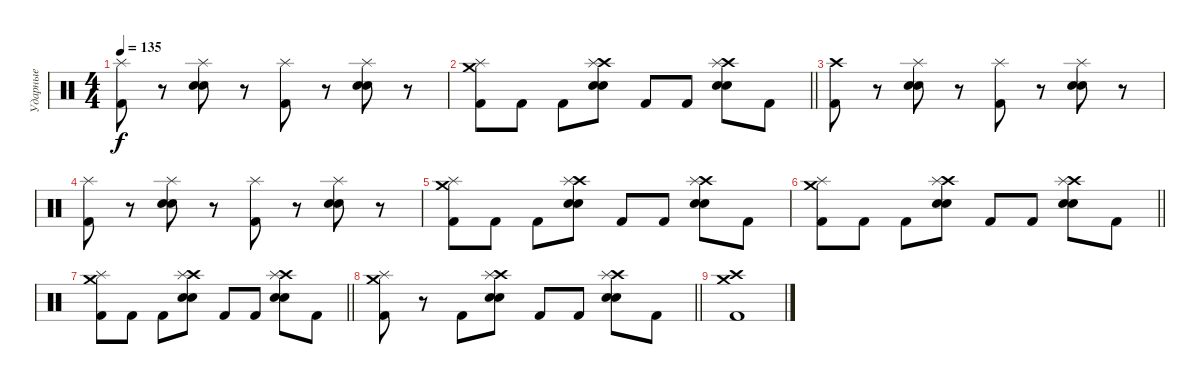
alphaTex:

\track ("Ударные" "Ударные") {instrument percussion}
\staff {score}
\articulation defaults
\ts (4 4)
\tempo 135
\clef neutral
\ks c
("Splash (hit)" "Kick (hit) 2").8{dy f} r.8 ("Splash (hit)" "Electric Snare (hit)" "Snare (hit) 2").8 r.8 ("Splash (hit)" "Kick (hit) 2").8 r.8 ("Splash (hit)" "Electric Snare (hit)" "Snare (hit) 2").8 r.8 |
\barLineRight lightlight
("Crash medium (hit)" "Splash (hit)" "Kick (hit) 2").8 "Kick (hit) 2".8 "Kick (hit) 2".8 ("Crash high (hit)" "Splash (hit)" "Electric Snare (hit)" "Snare (hit) 2").8 "Kick (hit) 2".8 "Kick (hit) 2".8 ("Crash high (hit)" "Splash (hit)" "Electric Snare (hit)" "Snare (hit) 2").8 "Kick (hit) 2".8 |
("Crash high (hit)" "Kick (hit) 2").8 r.8 ("Splash (hit)" "Electric Snare (hit)" "Snare (hit) 2").8 r.8 ("Splash (hit)" "Kick (hit) 2").8 r.8 ("Splash (hit)" "Electric Snare (hit)" "Snare (hit) 2").8 r.8 |
("Splash (hit)" "Kick (hit) 2").8 r.8 ("Splash (hit)" "Electric Snare (hit)" "Snare (hit) 2").8 r.8 ("Splash (hit)" "Kick (hit) 2").8 r.8 ("Splash (hit)" "Electric Snare (hit)" "Snare (hit) 2").8 r.8 |
("Crash medium (hit)" "Splash (hit)" "Kick (hit) 2").8 "Kick (hit) 2".8 "Kick (hit) 2".8 ("Crash high (hit)" "Splash (hit)" "Electric Snare (hit)" "Snare (hit) 2").8 "Kick (hit) 2".8 "Kick (hit) 2".8 ("Crash high (hit)" "Splash (hit)" "Electric Snare (hit)" "Snare (hit) 2").8 "Kick (hit) 2".8 |
\barLineRight lightlight
("Crash medium (hit)" "Splash (hit)" "Kick (hit) 2").8 "Kick (hit) 2".8 "Kick (hit) 2".8 ("Crash high (hit)" "Splash (hit)" "Electric Snare (hit)" "Snare (hit) 2").8 "Kick (hit) 2".8 "Kick (hit) 2".8 ("Crash high (hit)" "Splash (hit)" "Electric Snare (hit)" "Snare (hit) 2").8 "Kick (hit) 2".8 |
\barLineRight lightlight
("Crash medium (hit)" "Splash (hit)" "Kick (hit) 2").8 "Kick (hit) 2".8 "Kick (hit) 2".8 ("Crash high (hit)" "Splash (hit)" "Electric Snare (hit)" "Snare (hit) 2").8 "Kick (hit) 2".8 "Kick (hit) 2".8 ("Crash high (hit)" "Splash (hit)" "Electric Snare (hit)" "Snare (hit) 2").8 "Kick (hit) 2".8 |
\barLineRight lightlight
("Crash medium (hit)" "Splash (hit)" "Kick (hit) 2").8 r.8 "Kick (hit) 2".8 ("Crash high (hit)" "Splash (hit)" "Electric Snare (hit)" "Snare (hit) 2").8 "Kick (hit) 2".8 "Kick (hit) 2".8 ("Crash high (hit)" "Splash (hit)" "Electric Snare (hit)" "Snare (hit) 2").8 "Kick (hit) 2".8 |
("Crash high (hit)" "Crash medium (hit)" "Kick (hit) 2").1
